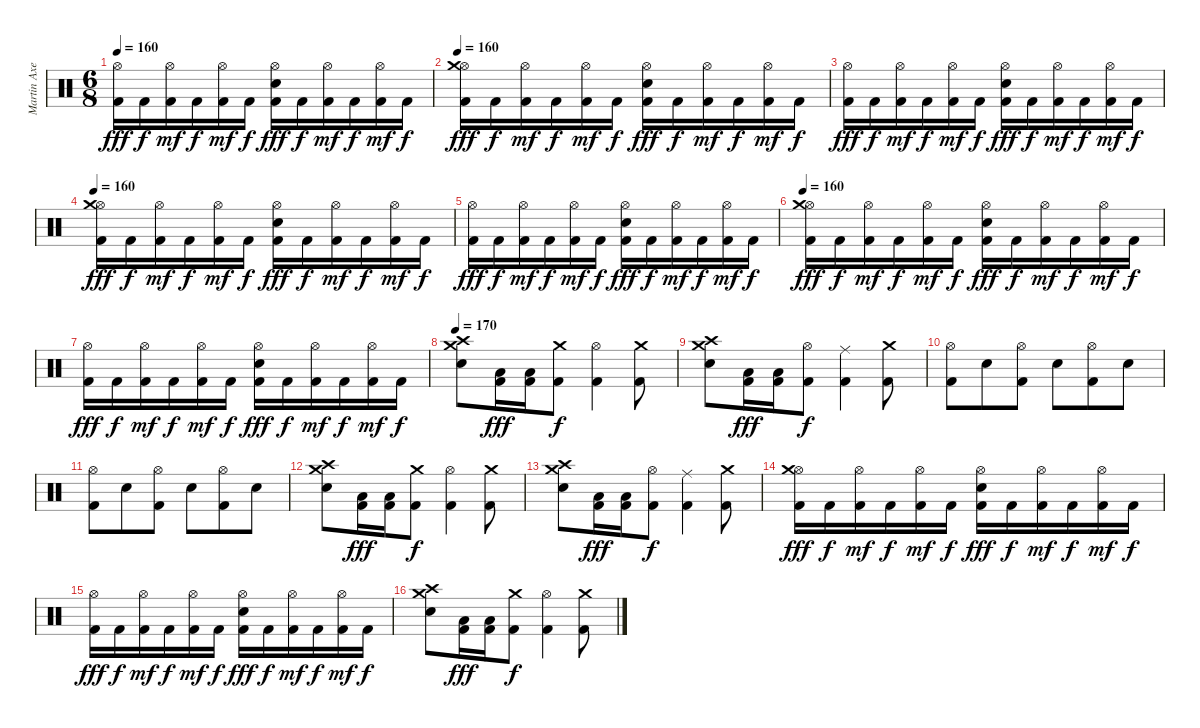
\track ("Martin Axenrot" "Martin Axe") {instrument percussion}
\staff
\articulation defaults
\ts (6 8)
\tempo 160
\clef neutral
\ks c
("Hi-Hat (open)" "Kick (hit) 2").16{dy fff} "Kick (hit) 2".16{dy f} ("Hi-Hat (open)" "Kick (hit) 2").16{dy mf} "Kick (hit) 2".16{dy f} ("Hi-Hat (open)" "Kick (hit) 2").16{dy mf} "Kick (hit) 2".16{dy f} ("Hi-Hat (open)" "Snare (hit) 2" "Kick (hit) 2").16{dy fff} "Kick (hit) 2".16{dy f} ("Hi-Hat (open)" "Kick (hit) 2").16{dy mf} "Kick (hit) 2".16{dy f} ("Hi-Hat (open)" "Kick (hit) 2").16{dy mf} "Kick (hit) 2".16{dy f} |
\tempo 160
("Hi-Hat (open)" "Crash medium (hit)" "Kick (hit) 2").16{dy fff} "Kick (hit) 2".16{dy f} ("Hi-Hat (open)" "Kick (hit) 2").16{dy mf} "Kick (hit) 2".16{dy f} ("Hi-Hat (open)" "Kick (hit) 2").16{dy mf} "Kick (hit) 2".16{dy f} ("Hi-Hat (open)" "Snare (hit) 2" "Kick (hit) 2").16{dy fff} "Kick (hit) 2".16{dy f} ("Hi-Hat (open)" "Kick (hit) 2").16{dy mf} "Kick (hit) 2".16{dy f} ("Hi-Hat (open)" "Kick (hit) 2").16{dy mf} "Kick (hit) 2".16{dy f} |
("Hi-Hat (open)" "Kick (hit) 2").16{dy fff} "Kick (hit) 2".16{dy f} ("Hi-Hat (open)" "Kick (hit) 2").16{dy mf} "Kick (hit) 2".16{dy f} ("Hi-Hat (open)" "Kick (hit) 2").16{dy mf} "Kick (hit) 2".16{dy f} ("Hi-Hat (open)" "Snare (hit) 2" "Kick (hit) 2").16{dy fff} "Kick (hit) 2".16{dy f} ("Hi-Hat (open)" "Kick (hit) 2").16{dy mf} "Kick (hit) 2".16{dy f} ("Hi-Hat (open)" "Kick (hit) 2").16{dy mf} "Kick (hit) 2".16{dy f} |
\tempo 160
("Hi-Hat (open)" "Crash medium (hit)" "Kick (hit) 2").16{dy fff} "Kick (hit) 2".16{dy f} ("Hi-Hat (open)" "Kick (hit) 2").16{dy mf} "Kick (hit) 2".16{dy f} ("Hi-Hat (open)" "Kick (hit) 2").16{dy mf} "Kick (hit) 2".16{dy f} ("Hi-Hat (open)" "Snare (hit) 2" "Kick (hit) 2").16{dy fff} "Kick (hit) 2".16{dy f} ("Hi-Hat (open)" "Kick (hit) 2").16{dy mf} "Kick (hit) 2".16{dy f} ("Hi-Hat (open)" "Kick (hit) 2").16{dy mf} "Kick (hit) 2".16{dy f} |
("Hi-Hat (open)" "Kick (hit) 2").16{dy fff} "Kick (hit) 2".16{dy f} ("Hi-Hat (open)" "Kick (hit) 2").16{dy mf} "Kick (hit) 2".16{dy f} ("Hi-Hat (open)" "Kick (hit) 2").16{dy mf} "Kick (hit) 2".16{dy f} ("Hi-Hat (open)" "Snare (hit) 2" "Kick (hit) 2").16{dy fff} "Kick (hit) 2".16{dy f} ("Hi-Hat (open)" "Kick (hit) 2").16{dy mf} "Kick (hit) 2".16{dy f} ("Hi-Hat (open)" "Kick (hit) 2").16{dy mf} "Kick (hit) 2".16{dy f} |
\tempo 160
("Hi-Hat (open)" "Crash medium (hit)" "Kick (hit) 2").16{dy fff} "Kick (hit) 2".16{dy f} ("Hi-Hat (open)" "Kick (hit) 2").16{dy mf} "Kick (hit) 2".16{dy f} ("Hi-Hat (open)" "Kick (hit) 2").16{dy mf} "Kick (hit) 2".16{dy f} ("Hi-Hat (open)" "Snare (hit) 2" "Kick (hit) 2").16{dy fff} "Kick (hit) 2".16{dy f} ("Hi-Hat (open)" "Kick (hit) 2").16{dy mf} "Kick (hit) 2".16{dy f} ("Hi-Hat (open)" "Kick (hit) 2").16{dy mf} "Kick (hit) 2".16{dy f} |
("Hi-Hat (open)" "Kick (hit) 2").16{dy fff} "Kick (hit) 2".16{dy f} ("Hi-Hat (open)" "Kick (hit) 2").16{dy mf} "Kick (hit) 2".16{dy f} ("Hi-Hat (open)" "Kick (hit) 2").16{dy mf} "Kick (hit) 2".16{dy f} ("Hi-Hat (open)" "Snare (hit) 2" "Kick (hit) 2").16{dy fff} "Kick (hit) 2".16{dy f} ("Hi-Hat (open)" "Kick (hit) 2").16{dy mf} "Kick (hit) 2".16{dy f} ("Hi-Hat (open)" "Kick (hit) 2").16{dy mf} "Kick (hit) 2".16{dy f} |
\tempo 170
("Crash high (hit)" "Crash medium (hit)" "Snare (hit) 2").8 ("Low Tom (hit)" "Kick (hit) 2").16{dy fff} ("Low Tom (hit)" "Kick (hit) 2").16 ("Crash medium (hit)" "Kick (hit) 2").8{dy f} ("Hi-Hat (open)" "Kick (hit) 2").4 ("Crash medium (hit)" "Kick (hit) 2").8 |
("Crash high (hit)" "Crash medium (hit)" "Snare (hit) 2").8 ("Low Tom (hit)" "Kick (hit) 2").16{dy fff} ("Low Tom (hit)" "Kick (hit) 2").16 ("Hi-Hat (open)" "Kick (hit) 2").8{dy f} ("Ride (middle)" "Kick (hit) 2").4 ("Crash medium (hit)" "Kick (hit) 2").8 |
("Hi-Hat (open)" "Kick (hit) 2").8 "Snare (hit) 2".8 ("Hi-Hat (open)" "Kick (hit) 2").8 "Snare (hit) 2".8 ("Hi-Hat (open)" "Kick (hit) 2").8 "Snare (hit) 2".8 |
("Hi-Hat (open)" "Kick (hit) 2").8 "Snare (hit) 2".8 ("Hi-Hat (open)" "Kick (hit) 2").8 "Snare (hit) 2".8 ("Hi-Hat (open)" "Kick (hit) 2").8 "Snare (hit) 2".8 |
("Crash high (hit)" "Crash medium (hit)" "Snare (hit) 2").8 ("Low Tom (hit)" "Kick (hit) 2").16{dy fff} ("Low Tom (hit)" "Kick (hit) 2").16 ("Crash medium (hit)" "Kick (hit) 2").8{dy f} ("Hi-Hat (open)" "Kick (hit) 2").4 ("Crash medium (hit)" "Kick (hit) 2").8 |
("Crash high (hit)" "Crash medium (hit)" "Snare (hit) 2").8 ("Low Tom (hit)" "Kick (hit) 2").16{dy fff} ("Low Tom (hit)" "Kick (hit) 2").16 ("Hi-Hat (open)" "Kick (hit) 2").8{dy f} ("Ride (middle)" "Kick (hit) 2").4 ("Crash medium (hit)" "Kick (hit) 2").8 |
("Hi-Hat (open)" "Crash medium (hit)" "Kick (hit) 2").16{dy fff} "Kick (hit) 2".16{dy f} ("Hi-Hat (open)" "Kick (hit) 2").16{dy mf} "Kick (hit) 2".16{dy f} ("Hi-Hat (open)" "Kick (hit) 2").16{dy mf} "Kick (hit) 2".16{dy f} ("Hi-Hat (open)" "Snare (hit) 2" "Kick (hit) 2").16{dy fff} "Kick (hit) 2".16{dy f} ("Hi-Hat (open)" "Kick (hit) 2").16{dy mf} "Kick (hit) 2".16{dy f} ("Hi-Hat (open)" "Kick (hit) 2").16{dy mf} "Kick (hit) 2".16{dy f} |
("Hi-Hat (open)" "Kick (hit) 2").16{dy fff} "Kick (hit) 2".16{dy f} ("Hi-Hat (open)" "Kick (hit) 2").16{dy mf} "Kick (hit) 2".16{dy f} ("Hi-Hat (open)" "Kick (hit) 2").16{dy mf} "Kick (hit) 2".16{dy f} ("Hi-Hat (open)" "Snare (hit) 2" "Kick (hit) 2").16{dy fff} "Kick (hit) 2".16{dy f} ("Hi-Hat (open)" "Kick (hit) 2").16{dy mf} "Kick (hit) 2".16{dy f} ("Hi-Hat (open)" "Kick (hit) 2").16{dy mf} "Kick (hit) 2".16{dy f} |
("Crash high (hit)" "Crash medium (hit)" "Snare (hit) 2").8 ("Low Tom (hit)" "Kick (hit) 2").16{dy fff} ("Low Tom (hit)" "Kick (hit) 2").16 ("Crash medium (hit)" "Kick (hit) 2").8{dy f} ("Hi-Hat (open)" "Kick (hit) 2").4 ("Crash medium (hit)" "Kick (hit) 2").8
